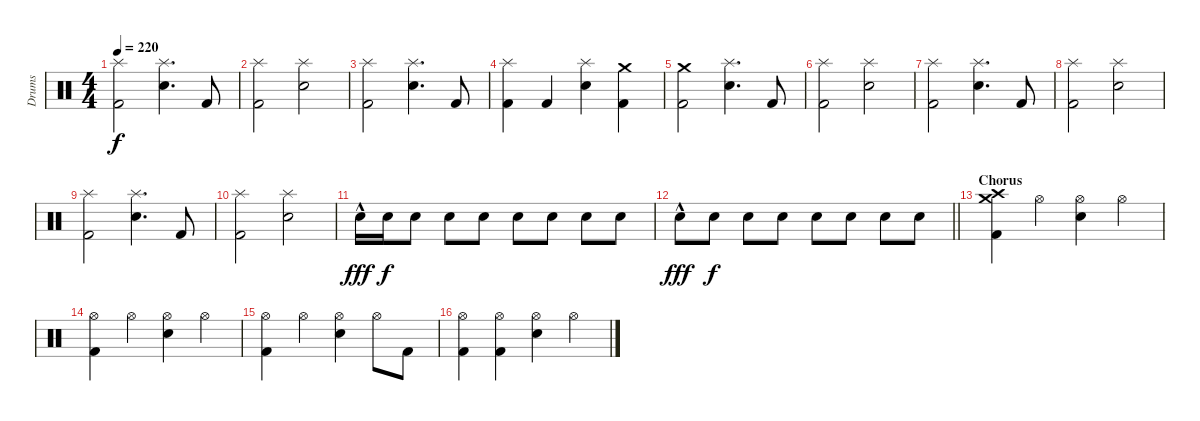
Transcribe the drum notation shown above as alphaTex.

\track ("Drums" "Drums") {instrument percussion}
\staff {score}
\articulation defaults
\ts (4 4)
\tempo 220
\clef neutral
\ks c
("Splash (hit)" "Kick (hit) 2").2{dy f} ("Splash (hit)" "Snare (hit) 2").4{d} "Kick (hit) 2".8 |
("Splash (hit)" "Kick (hit) 2").2 ("Splash (hit)" "Snare (hit) 2").2 |
("Splash (hit)" "Kick (hit) 2").2 ("Splash (hit)" "Snare (hit) 2").4{d} "Kick (hit) 2".8 |
("Splash (hit)" "Kick (hit) 2").4 "Kick (hit) 2".4 ("Splash (hit)" "Snare (hit) 2").4 ("Crash medium (hit)" "Kick (hit) 2").4 |
("Crash medium (hit)" "Kick (hit) 2").2 ("Splash (hit)" "Snare (hit) 2").4{d} "Kick (hit) 2".8 |
("Splash (hit)" "Kick (hit) 2").2 ("Splash (hit)" "Snare (hit) 2").2 |
("Splash (hit)" "Kick (hit) 2").2 ("Splash (hit)" "Snare (hit) 2").4{d} "Kick (hit) 2".8 |
("Splash (hit)" "Kick (hit) 2").2 ("Splash (hit)" "Snare (hit) 2").2 |
("Splash (hit)" "Kick (hit) 2").2 ("Splash (hit)" "Snare (hit) 2").4{d} "Kick (hit) 2".8 |
("Splash (hit)" "Kick (hit) 2").2 ("Splash (hit)" "Snare (hit) 2").2 |
"Snare (hit) 2"{hac}.16{dy fff} "Snare (hit) 2".16{dy f} "Snare (hit) 2".8 "Snare (hit) 2".8 "Snare (hit) 2".8 "Snare (hit) 2".8 "Snare (hit) 2".8 "Snare (hit) 2".8 "Snare (hit) 2".8 |
\barLineRight lightlight "Snare (hit) 2"{hac}.8{dy fff} "Snare (hit) 2".8{dy f} "Snare (hit) 2".8 "Snare (hit) 2".8 "Snare (hit) 2".8 "Snare (hit) 2".8 "Snare (hit) 2".8 "Snare (hit) 2".8
|
\section ("" "Chorus")
("Crash medium (hit)" "Crash high (hit)" "Kick (hit) 2").4 "Hi-Hat (open)".4 ("Hi-Hat (open)" "Electric Snare (hit)").4 "Hi-Hat (open)".4 |
("Hi-Hat (open)" "Kick (hit) 2").4 "Hi-Hat (open)".4 ("Hi-Hat (open)" "Electric Snare (hit)").4 "Hi-Hat (open)".4 |
("Hi-Hat (open)" "Kick (hit) 2").4 "Hi-Hat (open)".4 ("Hi-Hat (open)" "Electric Snare (hit)").4 "Hi-Hat (open)".8 "Kick (hit) 2".8 |
("Hi-Hat (open)" "Kick (hit) 2").4 ("Hi-Hat (open)" "Kick (hit) 2").4 ("Hi-Hat (open)" "Electric Snare (hit)").4 "Hi-Hat (open)".4
